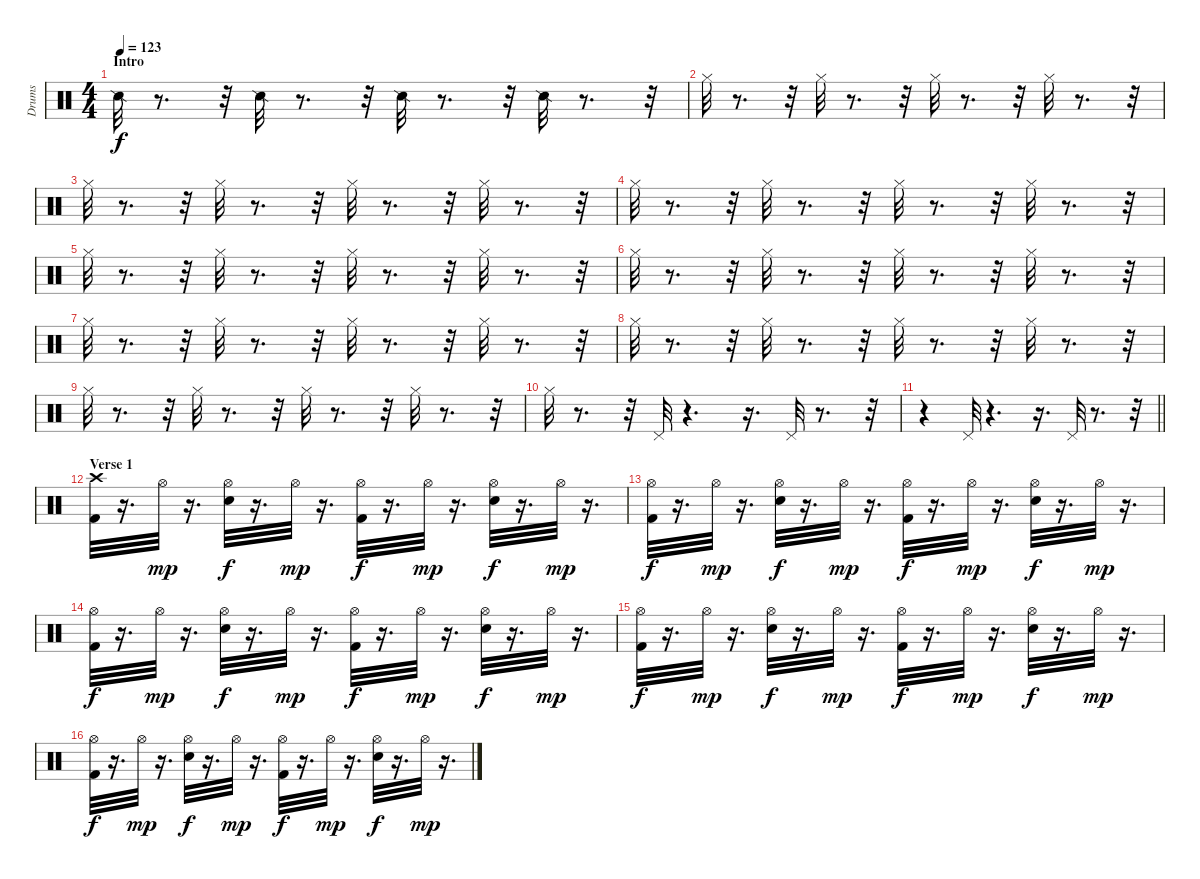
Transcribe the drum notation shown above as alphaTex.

\track ("Drums" "Drums") {instrument percussion}
\staff {score}
\articulation defaults
\ts (4 4)
\section ("" "Intro ")
\tempo 123
\clef neutral
\ks c "Snare (side stick) 2".32{dy f}
r.8{d} r.32 "Snare (side stick) 2".32 r.8{d} r.32 "Snare (side stick) 2".32 r.8{d} r.32 "Snare (side stick) 2".32 r.8{d} r.32 |
"Hi-Hat (closed)".32 r.8{d} r.32 "Hi-Hat (closed)".32 r.8{d} r.32 "Hi-Hat (closed)".32 r.8{d} r.32 "Hi-Hat (closed)".32 r.8{d} r.32 |
"Hi-Hat (closed)".32 r.8{d} r.32 "Hi-Hat (closed)".32 r.8{d} r.32 "Hi-Hat (closed)".32 r.8{d} r.32 "Hi-Hat (closed)".32 r.8{d} r.32 |
"Hi-Hat (closed)".32 r.8{d} r.32 "Hi-Hat (closed)".32 r.8{d} r.32 "Hi-Hat (closed)".32 r.8{d} r.32 "Hi-Hat (closed)".32 r.8{d} r.32 |
"Hi-Hat (closed)".32 r.8{d} r.32 "Hi-Hat (closed)".32 r.8{d} r.32 "Hi-Hat (closed)".32 r.8{d} r.32 "Hi-Hat (closed)".32 r.8{d} r.32 |
"Hi-Hat (closed)".32 r.8{d} r.32 "Hi-Hat (closed)".32 r.8{d} r.32 "Hi-Hat (closed)".32 r.8{d} r.32 "Hi-Hat (closed)".32 r.8{d} r.32 |
"Hi-Hat (closed)".32 r.8{d} r.32 "Hi-Hat (closed)".32 r.8{d} r.32 "Hi-Hat (closed)".32 r.8{d} r.32 "Hi-Hat (closed)".32 r.8{d} r.32 |
"Hi-Hat (closed)".32 r.8{d} r.32 "Hi-Hat (closed)".32 r.8{d} r.32 "Hi-Hat (closed)".32 r.8{d} r.32 "Hi-Hat (closed)".32 r.8{d} r.32 |
"Hi-Hat (closed)".32 r.8{d} r.32 "Hi-Hat (closed)".32 r.8{d} r.32 "Hi-Hat (closed)".32 r.8{d} r.32 "Hi-Hat (closed)".32 r.8{d} r.32 |
"Hi-Hat (closed)".32 r.8{d} r.32 "Pedal Hi-Hat (hit)".32 r.4{d} r.16{d} "Pedal Hi-Hat (hit)".32 r.8{d} r.32 |
\barLineRight lightlight
r.4 "Pedal Hi-Hat (hit)".32 r.4{d} r.16{d} "Pedal Hi-Hat (hit)".32 r.8{d} r.32 |
\section ("" "Verse 1")
("Crash high (hit)" "Kick (hit) 2").32 r.16{d} "Hi-Hat (open)".32{dy mp} r.16{d} ("Hi-Hat (open)" "Electric Snare (hit)").32{dy f} r.16{d} "Hi-Hat (open)".32{dy mp} r.16{d} ("Kick (hit) 2" "Hi-Hat (open)").32{dy f} r.16{d} "Hi-Hat (open)".32{dy mp} r.16{d} ("Hi-Hat (open)" "Electric Snare (hit)").32{dy f} r.16{d} "Hi-Hat (open)".32{dy mp} r.16{d} |
("Hi-Hat (open)" "Kick (hit) 2").32{dy f} r.16{d} "Hi-Hat (open)".32{dy mp} r.16{d} ("Hi-Hat (open)" "Electric Snare (hit)").32{dy f} r.16{d} "Hi-Hat (open)".32{dy mp} r.16{d} ("Hi-Hat (open)" "Kick (hit) 2").32{dy f} r.16{d} "Hi-Hat (open)".32{dy mp} r.16{d} ("Hi-Hat (open)" "Electric Snare (hit)").32{dy f} r.16{d} "Hi-Hat (open)".32{dy mp} r.16{d} |
("Hi-Hat (open)" "Kick (hit) 2").32{dy f} r.16{d} "Hi-Hat (open)".32{dy mp} r.16{d} ("Hi-Hat (open)" "Electric Snare (hit)").32{dy f} r.16{d} "Hi-Hat (open)".32{dy mp} r.16{d} ("Hi-Hat (open)" "Kick (hit) 2").32{dy f} r.16{d} "Hi-Hat (open)".32{dy mp} r.16{d} ("Hi-Hat (open)" "Electric Snare (hit)").32{dy f} r.16{d} "Hi-Hat (open)".32{dy mp} r.16{d} |
("Hi-Hat (open)" "Kick (hit) 2").32{dy f} r.16{d} "Hi-Hat (open)".32{dy mp} r.16{d} ("Hi-Hat (open)" "Electric Snare (hit)").32{dy f} r.16{d} "Hi-Hat (open)".32{dy mp} r.16{d} ("Hi-Hat (open)" "Kick (hit) 2").32{dy f} r.16{d} "Hi-Hat (open)".32{dy mp} r.16{d} ("Hi-Hat (open)" "Electric Snare (hit)").32{dy f} r.16{d} "Hi-Hat (open)".32{dy mp} r.16{d} |
("Hi-Hat (open)" "Kick (hit) 2").32{dy f} r.16{d} "Hi-Hat (open)".32{dy mp} r.16{d} ("Hi-Hat (open)" "Electric Snare (hit)").32{dy f} r.16{d} "Hi-Hat (open)".32{dy mp} r.16{d} ("Hi-Hat (open)" "Kick (hit) 2").32{dy f} r.16{d} "Hi-Hat (open)".32{dy mp} r.16{d} ("Hi-Hat (open)" "Electric Snare (hit)").32{dy f} r.16{d} "Hi-Hat (open)".32{dy mp} r.16{d}
